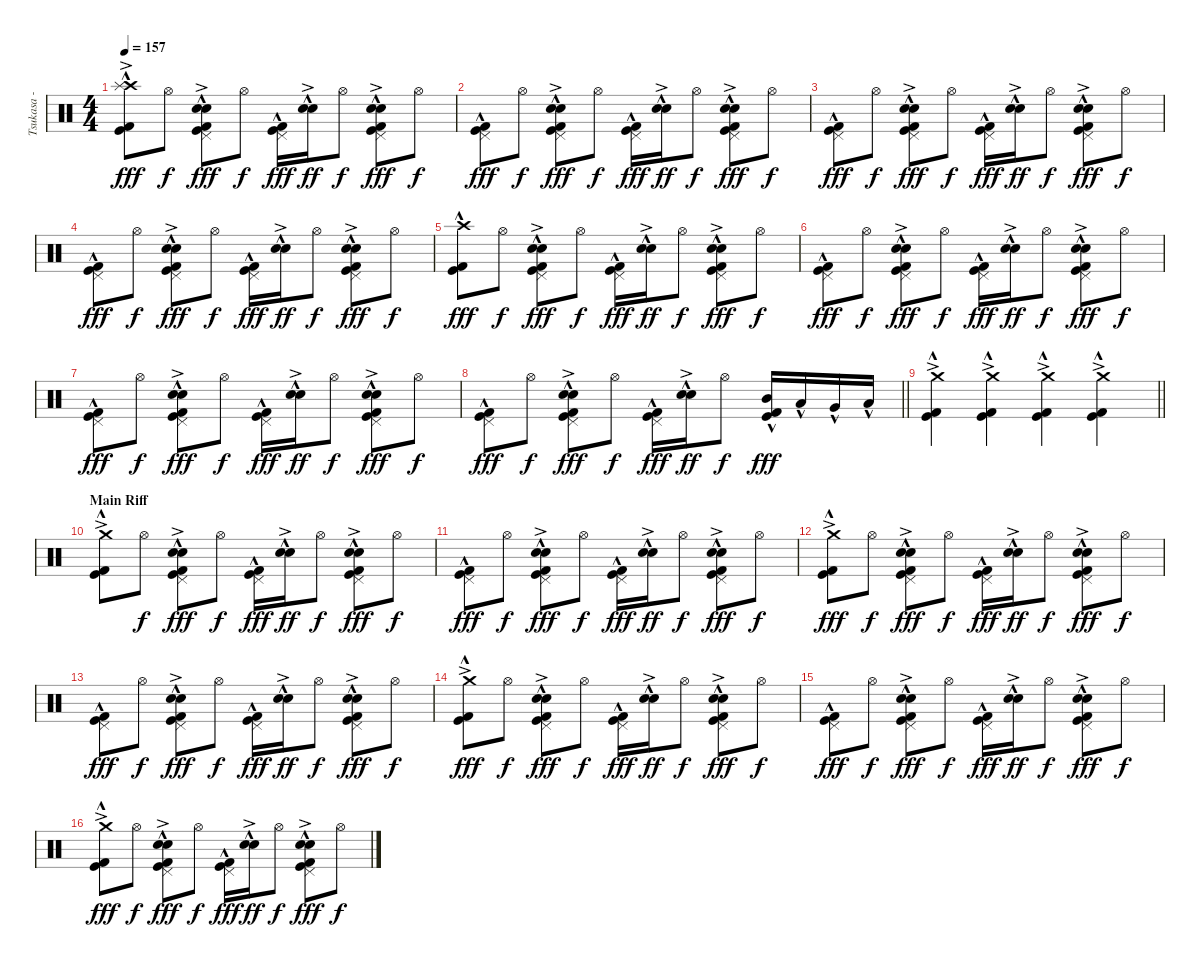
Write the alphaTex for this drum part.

\track ("Tsukasa - Drums" "Tsukasa - ") {instrument percussion}
\staff {score}
\articulation defaults
\ts (4 4)
\section ("" "")
\tempo 157
\clef neutral
\ks c
("Crash high (hit)"{hac} "Splash (hit)"{ac} "Kick (hit) 2"{hac} "Kick (hit)"{hac}).8{dy fff} "Hi-Hat (open)".8{dy f} ("Pedal Hi-Hat (hit)" "Electric Snare (hit)"{hac} "Snare (hit) 2"{ac} "Kick (hit) 2"{hac} "Kick (hit)"{hac}).8{dy fff} "Hi-Hat (open)".8{dy f} ("Pedal Hi-Hat (hit)" "Kick (hit) 2"{hac} "Kick (hit)"{hac}).16{dy fff} ("Electric Snare (hit)"{hac} "Snare (hit) 2"{ac}).16{dy ff} "Hi-Hat (open)".8{dy f} ("Pedal Hi-Hat (hit)" "Electric Snare (hit)"{hac} "Snare (hit) 2"{ac} "Kick (hit) 2"{hac} "Kick (hit)"{hac}).8{dy fff} "Hi-Hat (open)".8{dy f} |
("Pedal Hi-Hat (hit)" "Kick (hit) 2"{hac} "Kick (hit)"{hac}).8{dy fff} "Hi-Hat (open)".8{dy f} ("Pedal Hi-Hat (hit)" "Electric Snare (hit)"{hac} "Snare (hit) 2"{ac} "Kick (hit) 2"{hac} "Kick (hit)"{hac}).8{dy fff} "Hi-Hat (open)".8{dy f} ("Pedal Hi-Hat (hit)" "Kick (hit) 2"{hac} "Kick (hit)"{hac}).16{dy fff} ("Electric Snare (hit)"{hac} "Snare (hit) 2"{ac}).16{dy ff} "Hi-Hat (open)".8{dy f} ("Pedal Hi-Hat (hit)" "Electric Snare (hit)"{hac} "Snare (hit) 2"{ac} "Kick (hit) 2"{hac} "Kick (hit)"{hac}).8{dy fff} "Hi-Hat (open)".8{dy f} |
("Pedal Hi-Hat (hit)" "Kick (hit) 2"{hac} "Kick (hit)"{hac}).8{dy fff} "Hi-Hat (open)".8{dy f} ("Pedal Hi-Hat (hit)" "Electric Snare (hit)"{hac} "Snare (hit) 2"{ac} "Kick (hit) 2"{hac} "Kick (hit)"{hac}).8{dy fff} "Hi-Hat (open)".8{dy f} ("Pedal Hi-Hat (hit)" "Kick (hit) 2"{hac} "Kick (hit)"{hac}).16{dy fff} ("Electric Snare (hit)"{hac} "Snare (hit) 2"{ac}).16{dy ff} "Hi-Hat (open)".8{dy f} ("Pedal Hi-Hat (hit)" "Electric Snare (hit)"{hac} "Snare (hit) 2"{ac} "Kick (hit) 2"{hac} "Kick (hit)"{hac}).8{dy fff} "Hi-Hat (open)".8{dy f} |
("Pedal Hi-Hat (hit)" "Kick (hit) 2"{hac} "Kick (hit)"{hac}).8{dy fff} "Hi-Hat (open)".8{dy f} ("Pedal Hi-Hat (hit)" "Electric Snare (hit)"{hac} "Snare (hit) 2"{ac} "Kick (hit) 2"{hac} "Kick (hit)"{hac}).8{dy fff} "Hi-Hat (open)".8{dy f} ("Pedal Hi-Hat (hit)" "Kick (hit) 2"{hac} "Kick (hit)"{hac}).16{dy fff} ("Electric Snare (hit)"{hac} "Snare (hit) 2"{ac}).16{dy ff} "Hi-Hat (open)".8{dy f} ("Pedal Hi-Hat (hit)" "Electric Snare (hit)"{hac} "Snare (hit) 2"{ac} "Kick (hit) 2"{hac} "Kick (hit)"{hac}).8{dy fff} "Hi-Hat (open)".8{dy f} |
("Crash high (hit)"{hac} "Kick (hit) 2"{hac} "Kick (hit)"{hac}).8{dy fff} "Hi-Hat (open)".8{dy f} ("Pedal Hi-Hat (hit)" "Electric Snare (hit)"{hac} "Snare (hit) 2"{ac} "Kick (hit) 2"{hac} "Kick (hit)"{hac}).8{dy fff} "Hi-Hat (open)".8{dy f} ("Pedal Hi-Hat (hit)" "Kick (hit) 2"{hac} "Kick (hit)"{hac}).16{dy fff} ("Electric Snare (hit)"{hac} "Snare (hit) 2"{ac}).16{dy ff} "Hi-Hat (open)".8{dy f} ("Pedal Hi-Hat (hit)" "Electric Snare (hit)"{hac} "Snare (hit) 2"{ac} "Kick (hit) 2"{hac} "Kick (hit)"{hac}).8{dy fff} "Hi-Hat (open)".8{dy f} |
("Pedal Hi-Hat (hit)" "Kick (hit) 2"{hac} "Kick (hit)"{hac}).8{dy fff} "Hi-Hat (open)".8{dy f} ("Pedal Hi-Hat (hit)" "Electric Snare (hit)"{hac} "Snare (hit) 2"{ac} "Kick (hit) 2"{hac} "Kick (hit)"{hac}).8{dy fff} "Hi-Hat (open)".8{dy f} ("Pedal Hi-Hat (hit)" "Kick (hit) 2"{hac} "Kick (hit)"{hac}).16{dy fff} ("Electric Snare (hit)"{hac} "Snare (hit) 2"{ac}).16{dy ff} "Hi-Hat (open)".8{dy f} ("Pedal Hi-Hat (hit)" "Electric Snare (hit)"{hac} "Snare (hit) 2"{ac} "Kick (hit) 2"{hac} "Kick (hit)"{hac}).8{dy fff} "Hi-Hat (open)".8{dy f} |
("Pedal Hi-Hat (hit)" "Kick (hit) 2"{hac} "Kick (hit)"{hac}).8{dy fff} "Hi-Hat (open)".8{dy f} ("Pedal Hi-Hat (hit)" "Electric Snare (hit)"{hac} "Snare (hit) 2"{ac} "Kick (hit) 2"{hac} "Kick (hit)"{hac}).8{dy fff} "Hi-Hat (open)".8{dy f} ("Pedal Hi-Hat (hit)" "Kick (hit) 2"{hac} "Kick (hit)"{hac}).16{dy fff} ("Electric Snare (hit)"{hac} "Snare (hit) 2"{ac}).16{dy ff} "Hi-Hat (open)".8{dy f} ("Pedal Hi-Hat (hit)" "Electric Snare (hit)"{hac} "Snare (hit) 2"{ac} "Kick (hit) 2"{hac} "Kick (hit)"{hac}).8{dy fff} "Hi-Hat (open)".8{dy f} |
\barLineRight lightlight
("Pedal Hi-Hat (hit)" "Kick (hit) 2"{hac} "Kick (hit)"{hac}).8{dy fff} "Hi-Hat (open)".8{dy f} ("Pedal Hi-Hat (hit)" "Electric Snare (hit)"{hac} "Snare (hit) 2"{ac} "Kick (hit) 2"{hac} "Kick (hit)"{hac}).8{dy fff} "Hi-Hat (open)".8{dy f} ("Pedal Hi-Hat (hit)" "Kick (hit) 2"{hac} "Kick (hit)"{hac}).16{dy fff} ("Electric Snare (hit)"{hac} "Snare (hit) 2"{ac}).16{dy ff} "Hi-Hat (open)".8{dy f} ("Mid Tom (hit)"{hac} "Kick (hit) 2"{hac} "Kick (hit)"{hac}).16{dy fff} "Low Tom (hit)"{hac}.16 "Very Low Tom (hit)"{hac}.16 "Low Floor Tom (hit)"{hac}.16 |
\barLineRight lightlight
("Crash medium (hit)"{ac} "Kick (hit) 2"{hac} "Kick (hit)"{hac}).4 ("Crash medium (hit)"{ac} "Kick (hit) 2"{hac} "Kick (hit)"{hac}).4 ("Crash medium (hit)"{ac} "Kick (hit) 2"{hac} "Kick (hit)"{hac}).4 ("Crash medium (hit)"{ac} "Kick (hit) 2"{hac} "Kick (hit)"{hac}).4 |
\section ("" "Main Riff")
("Crash medium (hit)"{ac} "Kick (hit) 2"{hac} "Kick (hit)"{hac}).8 "Hi-Hat (open)".8{dy f} ("Pedal Hi-Hat (hit)" "Electric Snare (hit)"{hac} "Snare (hit) 2"{ac} "Kick (hit) 2"{hac} "Kick (hit)"{hac}).8{dy fff} "Hi-Hat (open)".8{dy f} ("Pedal Hi-Hat (hit)" "Kick (hit) 2"{hac} "Kick (hit)"{hac}).16{dy fff} ("Electric Snare (hit)"{hac} "Snare (hit) 2"{ac}).16{dy ff} "Hi-Hat (open)".8{dy f} ("Pedal Hi-Hat (hit)" "Electric Snare (hit)"{hac} "Snare (hit) 2"{ac} "Kick (hit) 2"{hac} "Kick (hit)"{hac}).8{dy fff} "Hi-Hat (open)".8{dy f} |
("Pedal Hi-Hat (hit)" "Kick (hit) 2"{hac} "Kick (hit)"{hac}).8{dy fff} "Hi-Hat (open)".8{dy f} ("Pedal Hi-Hat (hit)" "Electric Snare (hit)"{hac} "Snare (hit) 2"{ac} "Kick (hit) 2"{hac} "Kick (hit)"{hac}).8{dy fff} "Hi-Hat (open)".8{dy f} ("Pedal Hi-Hat (hit)" "Kick (hit) 2"{hac} "Kick (hit)"{hac}).16{dy fff} ("Electric Snare (hit)"{hac} "Snare (hit) 2"{ac}).16{dy ff} "Hi-Hat (open)".8{dy f} ("Pedal Hi-Hat (hit)" "Electric Snare (hit)"{hac} "Snare (hit) 2"{ac} "Kick (hit) 2"{hac} "Kick (hit)"{hac}).8{dy fff} "Hi-Hat (open)".8{dy f} |
("Crash medium (hit)"{ac} "Kick (hit) 2"{hac} "Kick (hit)"{hac}).8{dy fff} "Hi-Hat (open)".8{dy f} ("Pedal Hi-Hat (hit)" "Electric Snare (hit)"{hac} "Snare (hit) 2"{ac} "Kick (hit) 2"{hac} "Kick (hit)"{hac}).8{dy fff} "Hi-Hat (open)".8{dy f} ("Pedal Hi-Hat (hit)" "Kick (hit) 2"{hac} "Kick (hit)"{hac}).16{dy fff} ("Electric Snare (hit)"{hac} "Snare (hit) 2"{ac}).16{dy ff} "Hi-Hat (open)".8{dy f} ("Pedal Hi-Hat (hit)" "Electric Snare (hit)"{hac} "Snare (hit) 2"{ac} "Kick (hit) 2"{hac} "Kick (hit)"{hac}).8{dy fff} "Hi-Hat (open)".8{dy f} |
("Pedal Hi-Hat (hit)" "Kick (hit) 2"{hac} "Kick (hit)"{hac}).8{dy fff} "Hi-Hat (open)".8{dy f} ("Pedal Hi-Hat (hit)" "Electric Snare (hit)"{hac} "Snare (hit) 2"{ac} "Kick (hit) 2"{hac} "Kick (hit)"{hac}).8{dy fff} "Hi-Hat (open)".8{dy f} ("Pedal Hi-Hat (hit)" "Kick (hit) 2"{hac} "Kick (hit)"{hac}).16{dy fff} ("Electric Snare (hit)"{hac} "Snare (hit) 2"{ac}).16{dy ff} "Hi-Hat (open)".8{dy f} ("Pedal Hi-Hat (hit)" "Electric Snare (hit)"{hac} "Snare (hit) 2"{ac} "Kick (hit) 2"{hac} "Kick (hit)"{hac}).8{dy fff} "Hi-Hat (open)".8{dy f} |
("Crash medium (hit)"{ac} "Kick (hit) 2"{hac} "Kick (hit)"{hac}).8{dy fff} "Hi-Hat (open)".8{dy f} ("Pedal Hi-Hat (hit)" "Electric Snare (hit)"{hac} "Snare (hit) 2"{ac} "Kick (hit) 2"{hac} "Kick (hit)"{hac}).8{dy fff} "Hi-Hat (open)".8{dy f} ("Pedal Hi-Hat (hit)" "Kick (hit) 2"{hac} "Kick (hit)"{hac}).16{dy fff} ("Electric Snare (hit)"{hac} "Snare (hit) 2"{ac}).16{dy ff} "Hi-Hat (open)".8{dy f} ("Pedal Hi-Hat (hit)" "Electric Snare (hit)"{hac} "Snare (hit) 2"{ac} "Kick (hit) 2"{hac} "Kick (hit)"{hac}).8{dy fff} "Hi-Hat (open)".8{dy f} |
("Pedal Hi-Hat (hit)" "Kick (hit) 2"{hac} "Kick (hit)"{hac}).8{dy fff} "Hi-Hat (open)".8{dy f} ("Pedal Hi-Hat (hit)" "Electric Snare (hit)"{hac} "Snare (hit) 2"{ac} "Kick (hit) 2"{hac} "Kick (hit)"{hac}).8{dy fff} "Hi-Hat (open)".8{dy f} ("Pedal Hi-Hat (hit)" "Kick (hit) 2"{hac} "Kick (hit)"{hac}).16{dy fff} ("Electric Snare (hit)"{hac} "Snare (hit) 2"{ac}).16{dy ff} "Hi-Hat (open)".8{dy f} ("Pedal Hi-Hat (hit)" "Electric Snare (hit)"{hac} "Snare (hit) 2"{ac} "Kick (hit) 2"{hac} "Kick (hit)"{hac}).8{dy fff} "Hi-Hat (open)".8{dy f} |
("Crash medium (hit)"{ac} "Kick (hit) 2"{hac} "Kick (hit)"{hac}).8{dy fff} "Hi-Hat (open)".8{dy f} ("Pedal Hi-Hat (hit)" "Electric Snare (hit)"{hac} "Snare (hit) 2"{ac} "Kick (hit) 2"{hac} "Kick (hit)"{hac}).8{dy fff} "Hi-Hat (open)".8{dy f} ("Pedal Hi-Hat (hit)" "Kick (hit) 2"{hac} "Kick (hit)"{hac}).16{dy fff} ("Electric Snare (hit)"{hac} "Snare (hit) 2"{ac}).16{dy ff} "Hi-Hat (open)".8{dy f} ("Pedal Hi-Hat (hit)" "Electric Snare (hit)"{hac} "Snare (hit) 2"{ac} "Kick (hit) 2"{hac} "Kick (hit)"{hac}).8{dy fff} "Hi-Hat (open)".8{dy f}
